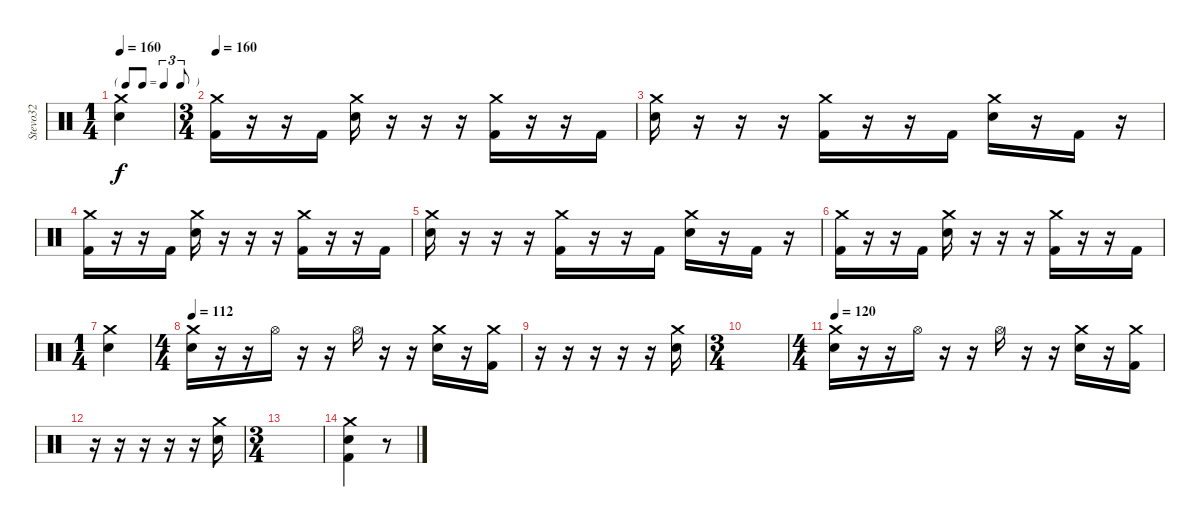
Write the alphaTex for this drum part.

\track ("Stevo32                 drums" "Stevo32   ") {instrument percussion}
\staff {score}
\articulation defaults
\ts (1 4)
\tf triplet8th
\tempo 160
\clef neutral
\ks c
("Crash medium (hit)" "Electric Snare (hit)").4{dy f} |
\ts (3 4)
\tempo 160
("Crash medium (hit)" "Kick (hit) 2").16 r.16 r.16 "Kick (hit) 2".16 ("Crash medium (hit)" "Electric Snare (hit)").16 r.16 r.16 r.16 ("Crash medium (hit)" "Kick (hit) 2").16 r.16 r.16 "Kick (hit) 2".16 |
("Crash medium (hit)" "Electric Snare (hit)").16 r.16 r.16 r.16 ("Crash medium (hit)" "Kick (hit) 2").16 r.16 r.16 "Kick (hit) 2".16 ("Crash medium (hit)" "Electric Snare (hit)").16 r.16 "Kick (hit) 2".16 r.16 |
("Crash medium (hit)" "Kick (hit) 2").16 r.16 r.16 "Kick (hit) 2".16 ("Crash medium (hit)" "Electric Snare (hit)").16 r.16 r.16 r.16 ("Crash medium (hit)" "Kick (hit) 2").16 r.16 r.16 "Kick (hit) 2".16 |
("Crash medium (hit)" "Electric Snare (hit)").16 r.16 r.16 r.16 ("Crash medium (hit)" "Kick (hit) 2").16 r.16 r.16 "Kick (hit) 2".16 ("Crash medium (hit)" "Electric Snare (hit)").16 r.16 "Kick (hit) 2".16 r.16 |
("Crash medium (hit)" "Kick (hit) 2").16 r.16 r.16 "Kick (hit) 2".16 ("Crash medium (hit)" "Electric Snare (hit)").16 r.16 r.16 r.16 ("Crash medium (hit)" "Kick (hit) 2").16 r.16 r.16 "Kick (hit) 2".16 |
\ts (1 4)
("Crash medium (hit)" "Electric Snare (hit)").4 |
\ts (4 4)
\tempo 120
\tempo 112
("Crash medium (hit)" "Electric Snare (hit)").16 r.16 r.16 "Hi-Hat (open)".16 r.16 r.16 "Hi-Hat (open)".16 r.16 r.16 ("Crash medium (hit)" "Electric Snare (hit)").16 r.16 ("Crash medium (hit)" "Kick (hit) 2").16 |
r.16 r.16 r.16 r.16 r.16 ("Crash medium (hit)" "Electric Snare (hit)").16 |
\ts (3 4)
|
\ts (4 4)
\tempo 120
("Crash medium (hit)" "Electric Snare (hit)").16 r.16 r.16 "Hi-Hat (open)".16 r.16 r.16 "Hi-Hat (open)".16 r.16 r.16 ("Crash medium (hit)" "Electric Snare (hit)").16 r.16 ("Crash medium (hit)" "Kick (hit) 2").16 |
r.16 r.16 r.16 r.16 r.16 ("Crash medium (hit)" "Electric Snare (hit)").16 |
\ts (3 4)
|
("Kick (hit) 2" "Electric Snare (hit)" "Crash medium (hit)").4 r.8{volume 0}
